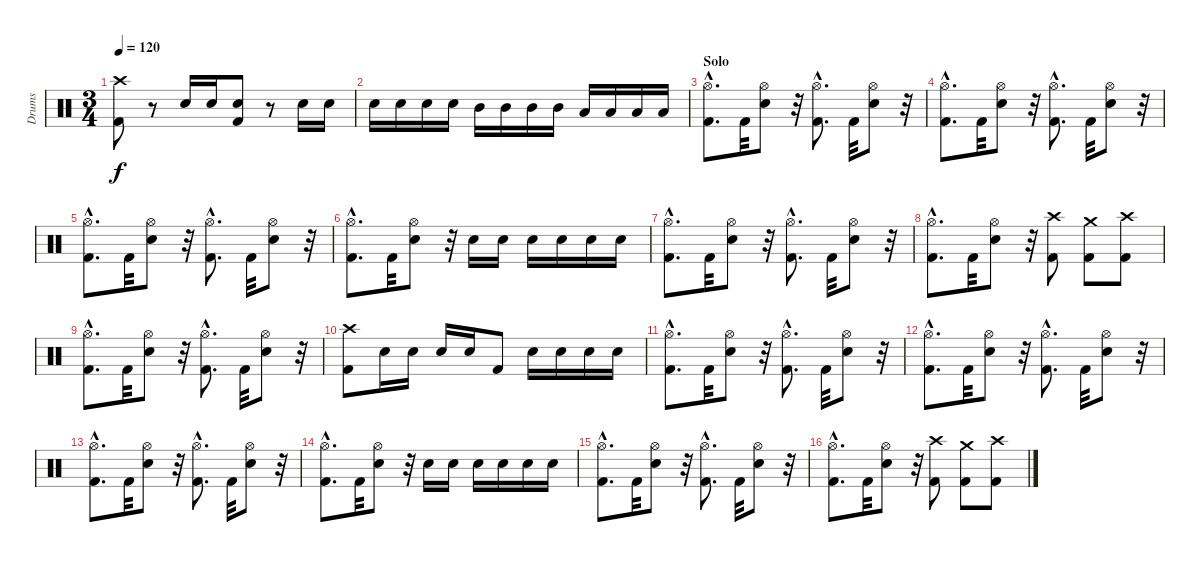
\track ("Drums" "Drums") {instrument percussion}
\staff {score}
\articulation defaults
\ts (3 4)
\tempo 120
\clef neutral
\ks c
("Crash high (hit)" "Kick (hit) 2").8{dy f} r.8 "Electric Snare (hit)".16 "Electric Snare (hit)".16 ("Electric Snare (hit)" "Kick (hit) 2").8 r.8 "Electric Snare (hit)".16 "Electric Snare (hit)".16 |
"Electric Snare (hit)".16 "Electric Snare (hit)".16 "Electric Snare (hit)".16 "Electric Snare (hit)".16 "Mid Tom (hit)".16 "Mid Tom (hit)".16 "Mid Tom (hit)".16 "Mid Tom (hit)".16 "Low Tom (hit)".16 "Low Tom (hit)".16 "Low Tom (hit)".16 "Low Tom (hit)".16 |
\section ("" "Solo")
("Hi-Hat (open)"{hac} "Kick (hit) 2"{hac}).8{d} "Kick (hit) 2".32 ("Hi-Hat (open)" "Electric Snare (hit)").8 r.32 ("Hi-Hat (open)"{hac} "Kick (hit) 2"{hac}).8{d} "Kick (hit) 2".32 ("Hi-Hat (open)" "Electric Snare (hit)").8 r.32 |
("Hi-Hat (open)"{hac} "Kick (hit) 2"{hac}).8{d} "Kick (hit) 2".32 ("Hi-Hat (open)" "Electric Snare (hit)").8 r.32 ("Hi-Hat (open)"{hac} "Kick (hit) 2"{hac}).8{d} "Kick (hit) 2".32 ("Hi-Hat (open)" "Electric Snare (hit)").8 r.32 |
("Hi-Hat (open)"{hac} "Kick (hit) 2"{hac}).8{d} "Kick (hit) 2".32 ("Hi-Hat (open)" "Electric Snare (hit)").8 r.32 ("Hi-Hat (open)"{hac} "Kick (hit) 2"{hac}).8{d} "Kick (hit) 2".32 ("Hi-Hat (open)" "Electric Snare (hit)").8 r.32 |
("Hi-Hat (open)"{hac} "Kick (hit) 2"{hac}).8{d} "Kick (hit) 2".32 ("Hi-Hat (open)" "Electric Snare (hit)").8 r.32 "Electric Snare (hit)".16 "Electric Snare (hit)".16 "Electric Snare (hit)".16 "Electric Snare (hit)".16 "Electric Snare (hit)".16 "Electric Snare (hit)".16 |
("Hi-Hat (open)"{hac} "Kick (hit) 2"{hac}).8{d} "Kick (hit) 2".32 ("Hi-Hat (open)" "Electric Snare (hit)").8 r.32 ("Hi-Hat (open)"{hac} "Kick (hit) 2"{hac}).8{d} "Kick (hit) 2".32 ("Hi-Hat (open)" "Electric Snare (hit)").8 r.32 |
("Hi-Hat (open)"{hac} "Kick (hit) 2"{hac}).8{d} "Kick (hit) 2".32 ("Hi-Hat (open)" "Electric Snare (hit)").8 r.32 ("Crash high (hit)" "Kick (hit) 2").8 ("Crash medium (hit)" "Kick (hit) 2").8 ("Crash high (hit)" "Kick (hit) 2").8 |
("Hi-Hat (open)"{hac} "Kick (hit) 2"{hac}).8{d} "Kick (hit) 2".32 ("Hi-Hat (open)" "Electric Snare (hit)").8 r.32 ("Hi-Hat (open)"{hac} "Kick (hit) 2"{hac}).8{d} "Kick (hit) 2".32 ("Hi-Hat (open)" "Electric Snare (hit)").8 r.32 |
("Crash high (hit)" "Kick (hit) 2").8 "Electric Snare (hit)".16 "Electric Snare (hit)".16 "Electric Snare (hit)".16 "Electric Snare (hit)".16 "Kick (hit) 2".8 "Electric Snare (hit)".16 "Electric Snare (hit)".16 "Electric Snare (hit)".16 "Electric Snare (hit)".16 |
("Hi-Hat (open)"{hac} "Kick (hit) 2"{hac}).8{d} "Kick (hit) 2".32 ("Hi-Hat (open)" "Electric Snare (hit)").8 r.32 ("Hi-Hat (open)"{hac} "Kick (hit) 2"{hac}).8{d} "Kick (hit) 2".32 ("Hi-Hat (open)" "Electric Snare (hit)").8 r.32 |
("Hi-Hat (open)"{hac} "Kick (hit) 2"{hac}).8{d} "Kick (hit) 2".32 ("Hi-Hat (open)" "Electric Snare (hit)").8 r.32 ("Hi-Hat (open)"{hac} "Kick (hit) 2"{hac}).8{d} "Kick (hit) 2".32 ("Hi-Hat (open)" "Electric Snare (hit)").8 r.32 |
("Hi-Hat (open)"{hac} "Kick (hit) 2"{hac}).8{d} "Kick (hit) 2".32 ("Hi-Hat (open)" "Electric Snare (hit)").8 r.32 ("Hi-Hat (open)"{hac} "Kick (hit) 2"{hac}).8{d} "Kick (hit) 2".32 ("Hi-Hat (open)" "Electric Snare (hit)").8 r.32 |
("Hi-Hat (open)"{hac} "Kick (hit) 2"{hac}).8{d} "Kick (hit) 2".32 ("Hi-Hat (open)" "Electric Snare (hit)").8 r.32 "Electric Snare (hit)".16 "Electric Snare (hit)".16 "Electric Snare (hit)".16 "Electric Snare (hit)".16 "Electric Snare (hit)".16 "Electric Snare (hit)".16 |
("Hi-Hat (open)"{hac} "Kick (hit) 2"{hac}).8{d} "Kick (hit) 2".32 ("Hi-Hat (open)" "Electric Snare (hit)").8 r.32 ("Hi-Hat (open)"{hac} "Kick (hit) 2"{hac}).8{d} "Kick (hit) 2".32 ("Hi-Hat (open)" "Electric Snare (hit)").8 r.32 |
("Hi-Hat (open)"{hac} "Kick (hit) 2"{hac}).8{d} "Kick (hit) 2".32 ("Hi-Hat (open)" "Electric Snare (hit)").8 r.32 ("Crash high (hit)" "Kick (hit) 2").8 ("Crash medium (hit)" "Kick (hit) 2").8 ("Crash high (hit)" "Kick (hit) 2").8
